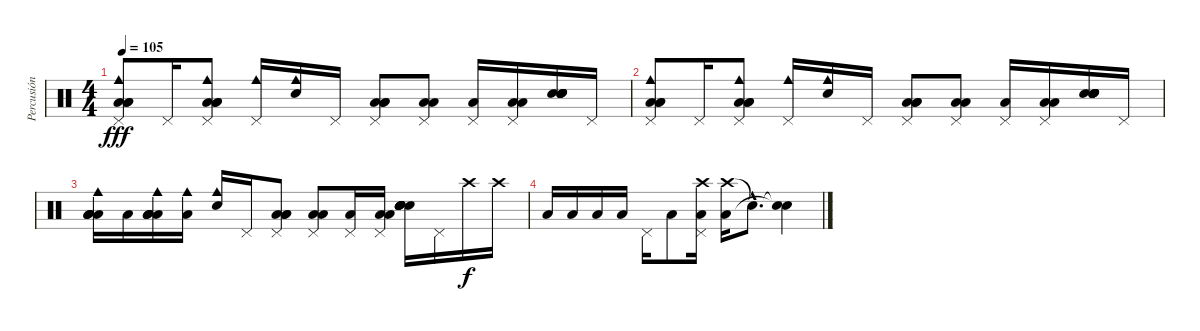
\track ("Percusión" "Percusión") {instrument percussion}
\staff {score}
\articulation defaults
\ts (4 4)
\tempo 105
\clef neutral
\ks c
("Cowbell medium (hit)" "Low Tom (hit)" "Pedal Hi-Hat (hit)" "Low Tom (hit)" "Low Tom (hit)").8{dy fff} "Pedal Hi-Hat (hit)".16 ("Cowbell medium (hit)" "Low Tom (hit)" "Pedal Hi-Hat (hit)" "Low Tom (hit)" "Low Tom (hit)").8 ("Cowbell medium (hit)" "Pedal Hi-Hat (hit)").16 ("Cowbell medium (hit)" "Snare (hit) 2").16 "Pedal Hi-Hat (hit)".16 ("Low Tom (hit)" "Pedal Hi-Hat (hit)" "Low Tom (hit)" "Low Tom (hit)").8 ("Pedal Hi-Hat (hit)" "Low Tom (hit)" "Low Tom (hit)").8 ("Low Tom (hit)" "Pedal Hi-Hat (hit)").16 ("Pedal Hi-Hat (hit)" "Low Tom (hit)" "Low Tom (hit)").16 ("Snare (hit) 2" "Snare (hit) 2" "Snare (hit) 2" "Snare (hit) 2" "Snare (hit) 2" "Snare (hit) 2").16 "Pedal Hi-Hat (hit)".16 |
("Cowbell medium (hit)" "Low Tom (hit)" "Pedal Hi-Hat (hit)" "Low Tom (hit)" "Low Tom (hit)").8 "Pedal Hi-Hat (hit)".16 ("Cowbell medium (hit)" "Low Tom (hit)" "Pedal Hi-Hat (hit)" "Low Tom (hit)" "Low Tom (hit)").8 ("Cowbell medium (hit)" "Pedal Hi-Hat (hit)").16 ("Cowbell medium (hit)" "Snare (hit) 2").16 "Pedal Hi-Hat (hit)".16 ("Low Tom (hit)" "Pedal Hi-Hat (hit)" "Low Tom (hit)" "Low Tom (hit)").8 ("Pedal Hi-Hat (hit)" "Low Tom (hit)" "Low Tom (hit)").8 ("Low Tom (hit)" "Pedal Hi-Hat (hit)").16 ("Pedal Hi-Hat (hit)" "Low Tom (hit)" "Low Tom (hit)").16 ("Snare (hit) 2" "Snare (hit) 2" "Snare (hit) 2" "Snare (hit) 2" "Snare (hit) 2" "Snare (hit) 2").16 "Pedal Hi-Hat (hit)".16 |
("Cowbell medium (hit)" "Low Tom (hit)" "Low Tom (hit)" "Low Tom (hit)" "Low Tom (hit)").16 "Low Tom (hit)".16 ("Cowbell medium (hit)" "Low Tom (hit)" "Low Tom (hit)" "Low Tom (hit)" "Low Tom (hit)").16 ("Cowbell medium (hit)" "Low Tom (hit)").16 ("Cowbell medium (hit)" "Snare (hit) 2").16 "Pedal Hi-Hat (hit)".16 ("Low Tom (hit)" "Pedal Hi-Hat (hit)" "Low Tom (hit)" "Low Tom (hit)").8 ("Pedal Hi-Hat (hit)" "Low Tom (hit)" "Low Tom (hit)").8 ("Low Tom (hit)" "Pedal Hi-Hat (hit)").16 ("Pedal Hi-Hat (hit)" "Low Tom (hit)" "Low Tom (hit)").16 ("Snare (hit) 2" "Snare (hit) 2" "Snare (hit) 2" "Snare (hit) 2" "Snare (hit) 2" "Snare (hit) 2").16 "Pedal Hi-Hat (hit)".16 "Crash high (hit)".16{dy f} "Crash high (hit)".16 |
"Low Tom (hit)".16 "Low Tom (hit)".16 "Low Tom (hit)".16 "Low Tom (hit)".16 "Pedal Hi-Hat (hit)".16 "Low Tom (hit)".8 ("Crash high (hit)" "Pedal Hi-Hat (hit)" "Low Tom (hit)").16 ("Crash high (hit)" "Low Tom (hit)").16 "Snare (hit)"{hac t}.8{d} ("Snare (hit)"{t} "Snare (hit)"{t}).4
